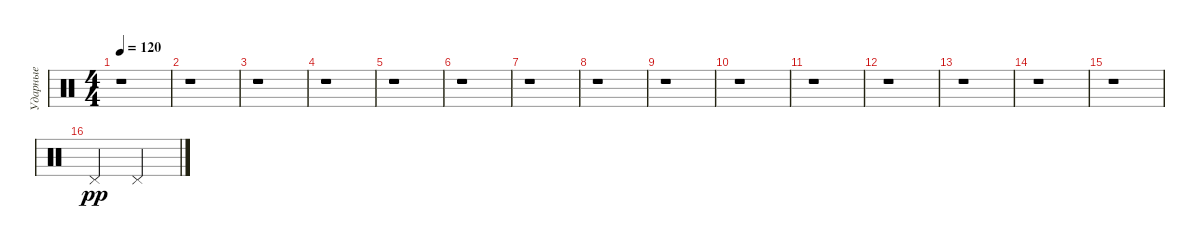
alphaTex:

\track ("Ударные" "Ударные") {instrument percussion}
\staff {score}
\articulation defaults
\ts (4 4)
\tempo 120
\clef neutral
\ks c
r.1{dy pp} |
r.1 |
r.1 |
r.1 |
r.1 |
r.1 |
r.1 |
r.1 |
r.1 |
r.1 |
r.1 |
r.1 |
r.1 |
r.1 |
r.1 |
"Pedal Hi-Hat (hit)".2 "Pedal Hi-Hat (hit)".2
